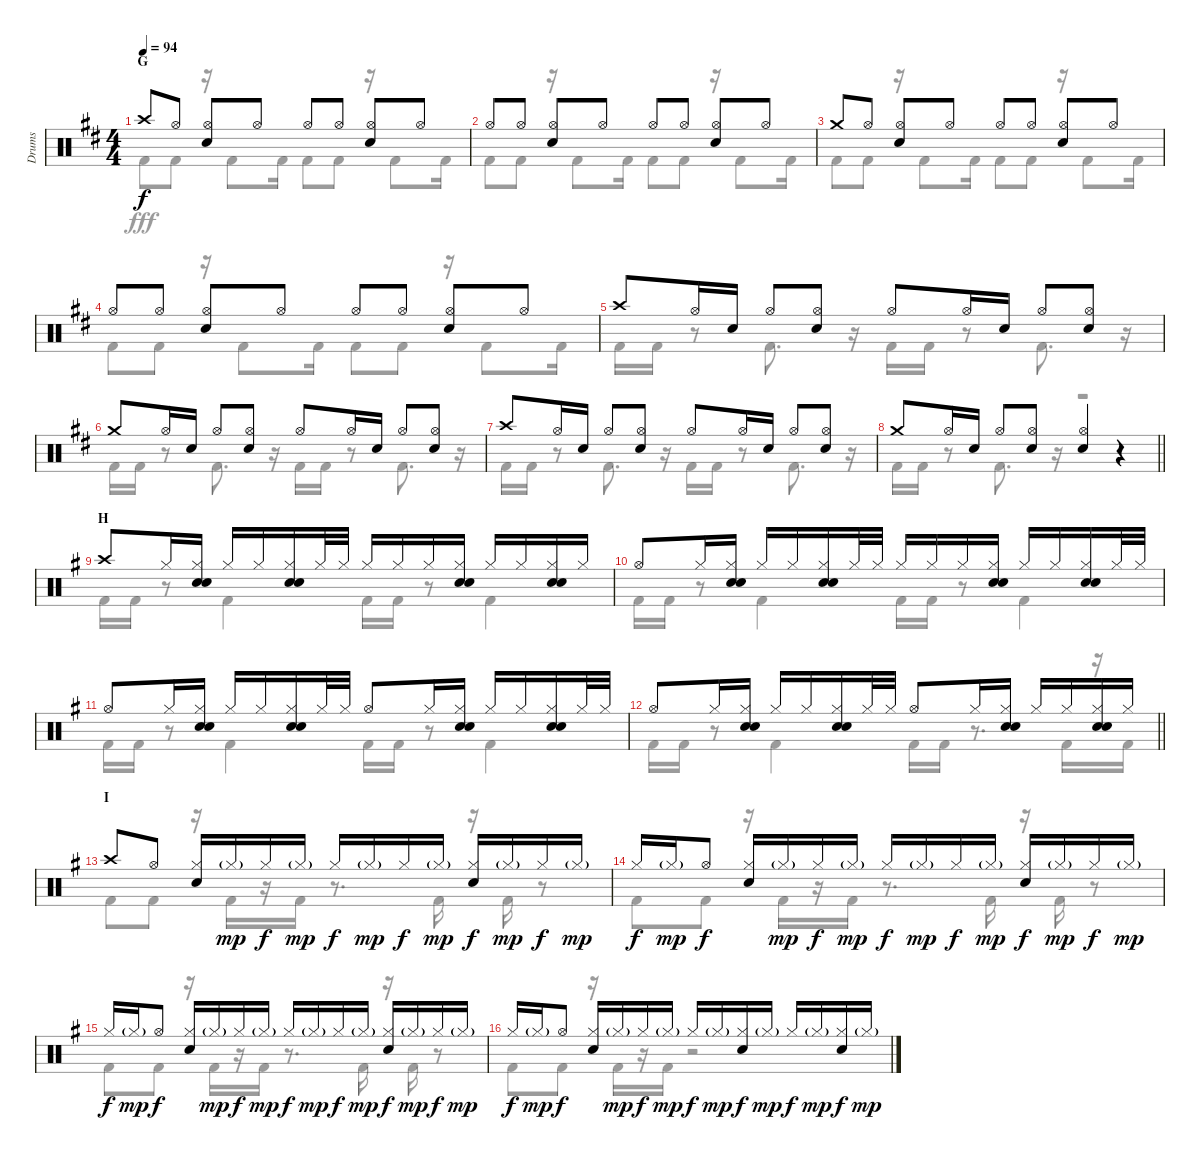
\track ("Drums" "Drums") {instrument percussion}
\staff {score}
\articulation defaults
\voice
\ts (4 4)
\section ("" "G")
\tempo 94
\clef neutral
\ks d "Crash high (hit)".8{dy f} "Hi-Hat (open)".8
("Hi-Hat (open)" "Snare (hit) 2").8 "Hi-Hat (open)".8 "Hi-Hat (open)".8 "Hi-Hat (open)".8 ("Hi-Hat (open)" "Snare (hit) 2").8 "Hi-Hat (open)".8 |
"Hi-Hat (open)".8 "Hi-Hat (open)".8 ("Hi-Hat (open)" "Snare (hit) 2").8 "Hi-Hat (open)".8 "Hi-Hat (open)".8 "Hi-Hat (open)".8 ("Hi-Hat (open)" "Snare (hit) 2").8 "Hi-Hat (open)".8 |
"Crash medium (hit)".8 "Hi-Hat (open)".8 ("Hi-Hat (open)" "Snare (hit) 2").8 "Hi-Hat (open)".8 "Hi-Hat (open)".8 "Hi-Hat (open)".8 ("Hi-Hat (open)" "Snare (hit) 2").8 "Hi-Hat (open)".8 |
"Hi-Hat (open)".8 "Hi-Hat (open)".8 ("Hi-Hat (open)" "Snare (hit) 2").8 "Hi-Hat (open)".8 "Hi-Hat (open)".8 "Hi-Hat (open)".8 ("Hi-Hat (open)" "Snare (hit) 2").8 "Hi-Hat (open)".8 |
"Crash high (hit)".8 "Hi-Hat (open)".16 "Snare (hit) 2".16 "Hi-Hat (open)".8 ("Hi-Hat (open)" "Snare (hit) 2").8 "Hi-Hat (open)".8 "Hi-Hat (open)".16 "Snare (hit) 2".16 "Hi-Hat (open)".8 ("Hi-Hat (open)" "Snare (hit) 2").8 |
"Crash medium (hit)".8 "Hi-Hat (open)".16 "Snare (hit) 2".16 "Hi-Hat (open)".8 ("Hi-Hat (open)" "Snare (hit) 2").8 "Hi-Hat (open)".8 "Hi-Hat (open)".16 "Snare (hit) 2".16 "Hi-Hat (open)".8 ("Hi-Hat (open)" "Snare (hit) 2").8 |
"Crash high (hit)".8 "Hi-Hat (open)".16 "Snare (hit) 2".16 "Hi-Hat (open)".8 ("Hi-Hat (open)" "Snare (hit) 2").8 "Hi-Hat (open)".8 "Hi-Hat (open)".16 "Snare (hit) 2".16 "Hi-Hat (open)".8 ("Hi-Hat (open)" "Snare (hit) 2").8 |
\barLineRight lightlight "Crash medium (hit)".8 "Hi-Hat (open)".16 "Snare (hit) 2".16 "Hi-Hat (open)".8
("Hi-Hat (open)" "Snare (hit) 2").8 ("Hi-Hat (open)" "Snare (hit) 2").4 r.4 |
\section ("" "H")
\ks g "Crash high (hit)".8 "Hi-Hat (closed)".16
("Hi-Hat (closed)" "Snare (hit) 2" "Hand Clap (hit)").16 "Hi-Hat (closed)".16 "Hi-Hat (closed)".16 ("Hi-Hat (closed)" "Snare (hit) 2" "Hand Clap (hit)").16 "Hi-Hat (closed)".32 "Hi-Hat (closed)".32 "Hi-Hat (closed)".16 "Hi-Hat (closed)".16 "Hi-Hat (closed)".16 ("Hi-Hat (closed)" "Snare (hit) 2" "Hand Clap (hit)").16 "Hi-Hat (closed)".16 "Hi-Hat (closed)".16 ("Hi-Hat (closed)" "Snare (hit) 2" "Hand Clap (hit)").16 "Hi-Hat (closed)".16 |
"Hi-Hat (open)".8 "Hi-Hat (closed)".16 ("Hi-Hat (closed)" "Snare (hit) 2" "Hand Clap (hit)").16 "Hi-Hat (closed)".16 "Hi-Hat (closed)".16 ("Hi-Hat (closed)" "Snare (hit) 2" "Hand Clap (hit)").16 "Hi-Hat (closed)".32 "Hi-Hat (closed)".32 "Hi-Hat (closed)".16 "Hi-Hat (closed)".16 "Hi-Hat (closed)".16 ("Hi-Hat (closed)" "Snare (hit) 2" "Hand Clap (hit)").16 "Hi-Hat (closed)".16 "Hi-Hat (closed)".16 ("Hi-Hat (closed)" "Snare (hit) 2" "Hand Clap (hit)").16 "Hi-Hat (closed)".32 "Hi-Hat (closed)".32 |
"Hi-Hat (open)".8 "Hi-Hat (closed)".16 ("Hi-Hat (closed)" "Snare (hit) 2" "Hand Clap (hit)").16 "Hi-Hat (closed)".16 "Hi-Hat (closed)".16 ("Hi-Hat (closed)" "Snare (hit) 2" "Hand Clap (hit)").16 "Hi-Hat (closed)".32 "Hi-Hat (closed)".32 "Hi-Hat (open)".8 "Hi-Hat (closed)".16 ("Hi-Hat (closed)" "Snare (hit) 2" "Hand Clap (hit)").16 "Hi-Hat (closed)".16 "Hi-Hat (closed)".16 ("Hi-Hat (closed)" "Snare (hit) 2" "Hand Clap (hit)").16 "Hi-Hat (closed)".32 "Hi-Hat (closed)".32 |
\barLineRight lightlight "Hi-Hat (open)".8 "Hi-Hat (closed)".16
("Hi-Hat (closed)" "Snare (hit) 2" "Hand Clap (hit)").16 "Hi-Hat (closed)".16 "Hi-Hat (closed)".16 ("Hi-Hat (closed)" "Snare (hit) 2" "Hand Clap (hit)").16 "Hi-Hat (closed)".32 "Hi-Hat (closed)".32 "Hi-Hat (open)".8 "Hi-Hat (closed)".16 ("Hi-Hat (closed)" "Snare (hit) 2" "Hand Clap (hit)").16 "Hi-Hat (closed)".16 "Hi-Hat (closed)".16 ("Hi-Hat (closed)" "Snare (hit) 2" "Hand Clap (hit)").16 "Hi-Hat (closed)".16 |
\section ("" "I")
"Crash high (hit)".8 "Hi-Hat (open)".8 ("Hi-Hat (closed)" "Snare (hit) 2").16 "Hi-Hat (closed)"{g}.16{dy mp} "Hi-Hat (closed)".16{dy f} "Hi-Hat (closed)"{g}.16{dy mp} "Hi-Hat (closed)".16{dy f} "Hi-Hat (closed)"{g}.16{dy mp} "Hi-Hat (closed)".16{dy f} "Hi-Hat (closed)"{g}.16{dy mp} ("Hi-Hat (closed)" "Snare (hit) 2").16{dy f} "Hi-Hat (closed)"{g}.16{dy mp} "Hi-Hat (closed)".16{dy f} "Hi-Hat (closed)"{g}.16{dy mp} |
"Hi-Hat (closed)".16{dy f} "Hi-Hat (closed)"{g}.16{dy mp} "Hi-Hat (open)".8{dy f} ("Hi-Hat (closed)" "Snare (hit) 2").16 "Hi-Hat (closed)"{g}.16{dy mp} "Hi-Hat (closed)".16{dy f} "Hi-Hat (closed)"{g}.16{dy mp} "Hi-Hat (closed)".16{dy f} "Hi-Hat (closed)"{g}.16{dy mp} "Hi-Hat (closed)".16{dy f} "Hi-Hat (closed)"{g}.16{dy mp} ("Hi-Hat (closed)" "Snare (hit) 2").16{dy f} "Hi-Hat (closed)"{g}.16{dy mp} "Hi-Hat (closed)".16{dy f} "Hi-Hat (closed)"{g}.16{dy mp} |
"Hi-Hat (closed)".16{dy f} "Hi-Hat (closed)"{g}.16{dy mp} "Hi-Hat (open)".8{dy f} ("Hi-Hat (closed)" "Snare (hit) 2").16 "Hi-Hat (closed)"{g}.16{dy mp} "Hi-Hat (closed)".16{dy f} "Hi-Hat (closed)"{g}.16{dy mp} "Hi-Hat (closed)".16{dy f} "Hi-Hat (closed)"{g}.16{dy mp} "Hi-Hat (closed)".16{dy f} "Hi-Hat (closed)"{g}.16{dy mp} ("Hi-Hat (closed)" "Snare (hit) 2").16{dy f} "Hi-Hat (closed)"{g}.16{dy mp} "Hi-Hat (closed)".16{dy f} "Hi-Hat (closed)"{g}.16{dy mp} |
"Hi-Hat (closed)".16{dy f} "Hi-Hat (closed)"{g}.16{dy mp} "Hi-Hat (open)".8{dy f} ("Hi-Hat (closed)" "Snare (hit) 2").16 "Hi-Hat (closed)"{g}.16{dy mp} "Hi-Hat (closed)".16{dy f} "Hi-Hat (closed)"{g}.16{dy mp} "Hi-Hat (closed)".16{dy f} "Hi-Hat (closed)"{g}.16{dy mp} ("Hi-Hat (closed)" "Snare (hit) 2").16{dy f} "Hi-Hat (closed)"{g}.16{dy mp} "Hi-Hat (closed)".16{dy f} "Hi-Hat (closed)"{g}.16{dy mp} ("Hi-Hat (closed)" "Snare (hit) 2").16{dy f} "Hi-Hat (closed)"{g}.16{dy mp}
\voice
\clef neutral
\ottava regular
\simile none
\ks d "Kick (hit) 2".8{dy fff} "Kick (hit) 2".8
r.16 "Kick (hit) 2".8 "Kick (hit) 2".16 "Kick (hit) 2".8 "Kick (hit) 2".8 r.16 "Kick (hit) 2".8 "Kick (hit) 2".16 |
"Kick (hit) 2".8 "Kick (hit) 2".8 r.16 "Kick (hit) 2".8 "Kick (hit) 2".16 "Kick (hit) 2".8 "Kick (hit) 2".8 r.16 "Kick (hit) 2".8 "Kick (hit) 2".16 |
"Kick (hit) 2".8 "Kick (hit) 2".8 r.16 "Kick (hit) 2".8 "Kick (hit) 2".16 "Kick (hit) 2".8 "Kick (hit) 2".8 r.16 "Kick (hit) 2".8 "Kick (hit) 2".16 |
"Kick (hit) 2".8 "Kick (hit) 2".8 r.16 "Kick (hit) 2".8 "Kick (hit) 2".16 "Kick (hit) 2".8 "Kick (hit) 2".8 r.16 "Kick (hit) 2".8 "Kick (hit) 2".16 |
"Kick (hit) 2".16 "Kick (hit) 2".16 r.8 "Kick (hit) 2".8{d} r.16 "Kick (hit) 2".16 "Kick (hit) 2".16 r.8 "Kick (hit) 2".8{d} r.16 |
"Kick (hit) 2".16 "Kick (hit) 2".16 r.8 "Kick (hit) 2".8{d} r.16 "Kick (hit) 2".16 "Kick (hit) 2".16 r.8 "Kick (hit) 2".8{d} r.16 |
"Kick (hit) 2".16 "Kick (hit) 2".16 r.8 "Kick (hit) 2".8{d} r.16 "Kick (hit) 2".16 "Kick (hit) 2".16 r.8 "Kick (hit) 2".8{d} r.16 |
\barLineRight lightlight "Kick (hit) 2".16 "Kick (hit) 2".16
r.8 "Kick (hit) 2".8{d} r.16 r.2 |
\ks g "Kick (hit) 2".16 "Kick (hit) 2".16
r.8 "Kick (hit) 2".4 "Kick (hit) 2".16 "Kick (hit) 2".16 r.8 "Kick (hit) 2".4 |
"Kick (hit) 2".16 "Kick (hit) 2".16 r.8 "Kick (hit) 2".4 "Kick (hit) 2".16 "Kick (hit) 2".16 r.8 "Kick (hit) 2".4 |
"Kick (hit) 2".16 "Kick (hit) 2".16 r.8 "Kick (hit) 2".4 "Kick (hit) 2".16 "Kick (hit) 2".16 r.8 "Kick (hit) 2".4 |
\barLineRight lightlight "Kick (hit) 2".16 "Kick (hit) 2".16
r.8 "Kick (hit) 2".4 "Kick (hit) 2".16 "Kick (hit) 2".16 r.8{d} "Kick (hit) 2".16 r.16 "Kick (hit) 2".16 |
"Kick (hit) 2".8 "Kick (hit) 2".8 r.16 "Kick (hit) 2".16 r.16 "Kick (hit) 2".16 r.8{d} "Kick (hit) 2".16 r.16 "Kick (hit) 2".16 r.8 |
"Kick (hit) 2".8 "Kick (hit) 2".8 r.16 "Kick (hit) 2".16 r.16 "Kick (hit) 2".16 r.8{d} "Kick (hit) 2".16 r.16 "Kick (hit) 2".16 r.8 |
"Kick (hit) 2".8 "Kick (hit) 2".8 r.16 "Kick (hit) 2".16 r.16 "Kick (hit) 2".16 r.8{d} "Kick (hit) 2".16 r.16 "Kick (hit) 2".16 r.8 |
"Kick (hit) 2".8 "Kick (hit) 2".8 r.16 "Kick (hit) 2".16 r.16 "Kick (hit) 2".16 r.2
